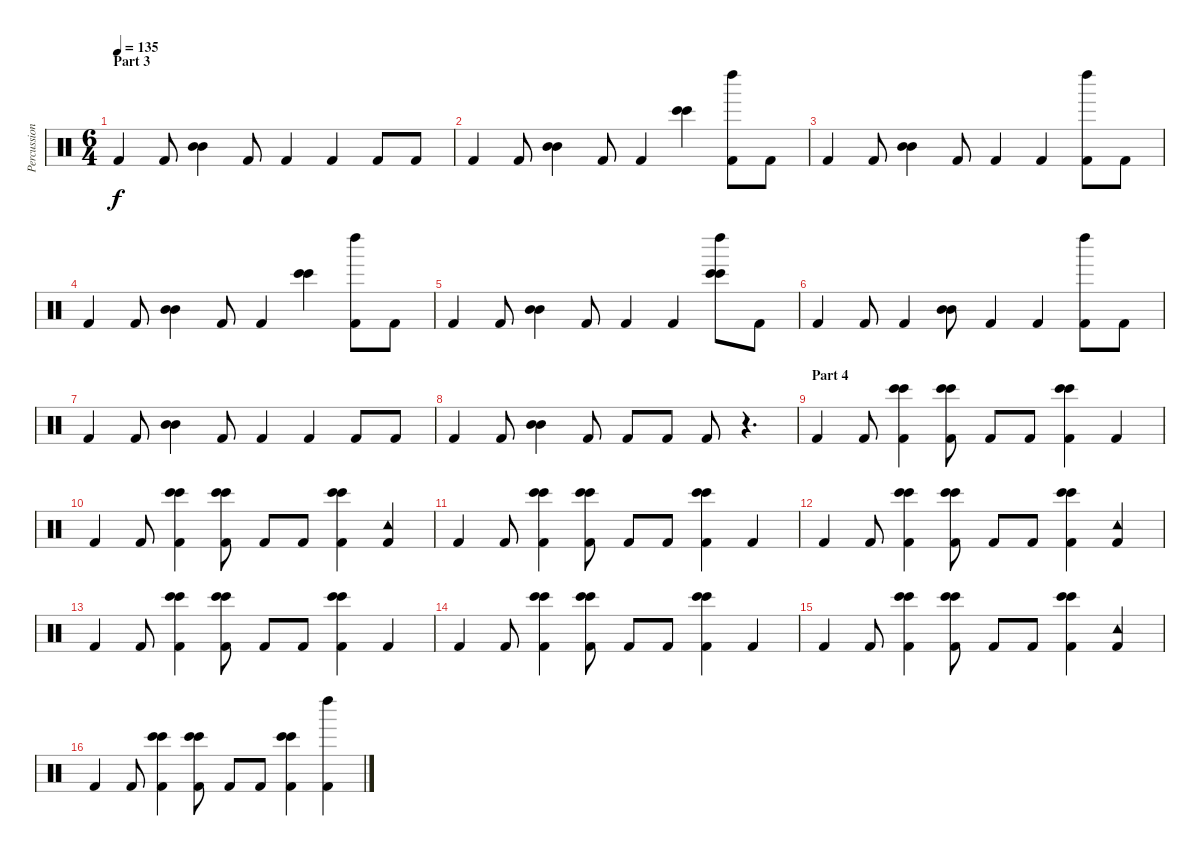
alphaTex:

\track ("Percussions" "Percussion") {instrument percussion}
\staff {score}
\articulation defaults
\ts (6 4)
\section ("" "Part 3")
\tempo 135
\clef neutral
\ks c "Kick (hit) 2".4{dy f} "Kick (hit) 2".8
("Mid Tom (hit)" "Mid Tom (hit)").4 "Kick (hit) 2".8 "Kick (hit) 2".4 "Kick (hit) 2".4 "Kick (hit) 2".8 "Kick (hit) 2".8 |
"Kick (hit) 2".4 "Kick (hit) 2".8 ("Mid Tom (hit)" "Mid Tom (hit)").4 "Kick (hit) 2".8 "Kick (hit) 2".4 ("Bongo High (hit)" "Bongo High (hit)").4 ("Kick (hit) 2" "Left Maraca (hit)").8 "Kick (hit) 2".8 |
"Kick (hit) 2".4 "Kick (hit) 2".8 ("Mid Tom (hit)" "Mid Tom (hit)").4 "Kick (hit) 2".8 "Kick (hit) 2".4 "Kick (hit) 2".4 ("Kick (hit) 2" "Left Maraca (hit)").8 "Kick (hit) 2".8 |
"Kick (hit) 2".4 "Kick (hit) 2".8 ("Mid Tom (hit)" "Mid Tom (hit)").4 "Kick (hit) 2".8 "Kick (hit) 2".4 ("Bongo High (hit)" "Bongo High (hit)").4 ("Kick (hit) 2" "Left Maraca (hit)").8 "Kick (hit) 2".8 |
"Kick (hit) 2".4 "Kick (hit) 2".8 ("Mid Tom (hit)" "Mid Tom (hit)").4 "Kick (hit) 2".8 "Kick (hit) 2".4 "Kick (hit) 2".4 ("Bongo High (hit)" "Bongo High (hit)" "Left Maraca (hit)").8 "Kick (hit) 2".8 |
"Kick (hit) 2".4 "Kick (hit) 2".8 "Kick (hit) 2".4 ("Mid Tom (hit)" "Mid Tom (hit)").8 "Kick (hit) 2".4 "Kick (hit) 2".4 ("Kick (hit) 2" "Left Maraca (hit)").8 "Kick (hit) 2".8 |
"Kick (hit) 2".4 "Kick (hit) 2".8 ("Mid Tom (hit)" "Mid Tom (hit)").4 "Kick (hit) 2".8 "Kick (hit) 2".4 "Kick (hit) 2".4 "Kick (hit) 2".8 "Kick (hit) 2".8 |
"Kick (hit) 2".4 "Kick (hit) 2".8 ("Mid Tom (hit)" "Mid Tom (hit)").4 "Kick (hit) 2".8 "Kick (hit) 2".8 "Kick (hit) 2".8 "Kick (hit) 2".8 r.4{d} |
\section ("" "Part 4")
"Kick (hit) 2".4 "Kick (hit) 2".8 ("Kick (hit) 2" "Bongo High (hit)" "Bongo High (hit)").4 ("Kick (hit) 2" "Bongo High (hit)" "Bongo High (hit)").8 "Kick (hit) 2".8 "Kick (hit) 2".8 ("Kick (hit) 2" "Bongo High (hit)" "Bongo High (hit)").4 "Kick (hit) 2".4 |
"Kick (hit) 2".4 "Kick (hit) 2".8 ("Kick (hit) 2" "Bongo High (hit)" "Bongo High (hit)").4 ("Kick (hit) 2" "Bongo High (hit)" "Bongo High (hit)").8 "Kick (hit) 2".8 "Kick (hit) 2".8 ("Kick (hit) 2" "Bongo High (hit)" "Bongo High (hit)").4 ("Kick (hit) 2" "Tambourine (hit)").4 |
"Kick (hit) 2".4 "Kick (hit) 2".8 ("Kick (hit) 2" "Bongo High (hit)" "Bongo High (hit)").4 ("Kick (hit) 2" "Bongo High (hit)" "Bongo High (hit)").8 "Kick (hit) 2".8 "Kick (hit) 2".8 ("Kick (hit) 2" "Bongo High (hit)" "Bongo High (hit)").4 "Kick (hit) 2".4 |
"Kick (hit) 2".4 "Kick (hit) 2".8 ("Kick (hit) 2" "Bongo High (hit)" "Bongo High (hit)").4 ("Kick (hit) 2" "Bongo High (hit)" "Bongo High (hit)").8 "Kick (hit) 2".8 "Kick (hit) 2".8 ("Kick (hit) 2" "Bongo High (hit)" "Bongo High (hit)").4 ("Kick (hit) 2" "Tambourine (hit)").4 |
"Kick (hit) 2".4 "Kick (hit) 2".8 ("Kick (hit) 2" "Bongo High (hit)" "Bongo High (hit)").4 ("Kick (hit) 2" "Bongo High (hit)" "Bongo High (hit)").8 "Kick (hit) 2".8 "Kick (hit) 2".8 ("Kick (hit) 2" "Bongo High (hit)" "Bongo High (hit)").4 "Kick (hit) 2".4 |
"Kick (hit) 2".4 "Kick (hit) 2".8 ("Kick (hit) 2" "Bongo High (hit)" "Bongo High (hit)").4 ("Kick (hit) 2" "Bongo High (hit)" "Bongo High (hit)").8 "Kick (hit) 2".8 "Kick (hit) 2".8 ("Kick (hit) 2" "Bongo High (hit)" "Bongo High (hit)").4 "Kick (hit) 2".4 |
"Kick (hit) 2".4 "Kick (hit) 2".8 ("Kick (hit) 2" "Bongo High (hit)" "Bongo High (hit)").4 ("Kick (hit) 2" "Bongo High (hit)" "Bongo High (hit)").8 "Kick (hit) 2".8 "Kick (hit) 2".8 ("Kick (hit) 2" "Bongo High (hit)" "Bongo High (hit)").4 ("Kick (hit) 2" "Tambourine (hit)").4 |
"Kick (hit) 2".4 "Kick (hit) 2".8 ("Kick (hit) 2" "Bongo High (hit)" "Bongo High (hit)").4 ("Kick (hit) 2" "Bongo High (hit)" "Bongo High (hit)").8 "Kick (hit) 2".8 "Kick (hit) 2".8 ("Kick (hit) 2" "Bongo High (hit)" "Bongo High (hit)").4 ("Kick (hit) 2" "Left Maraca (hit)").4
